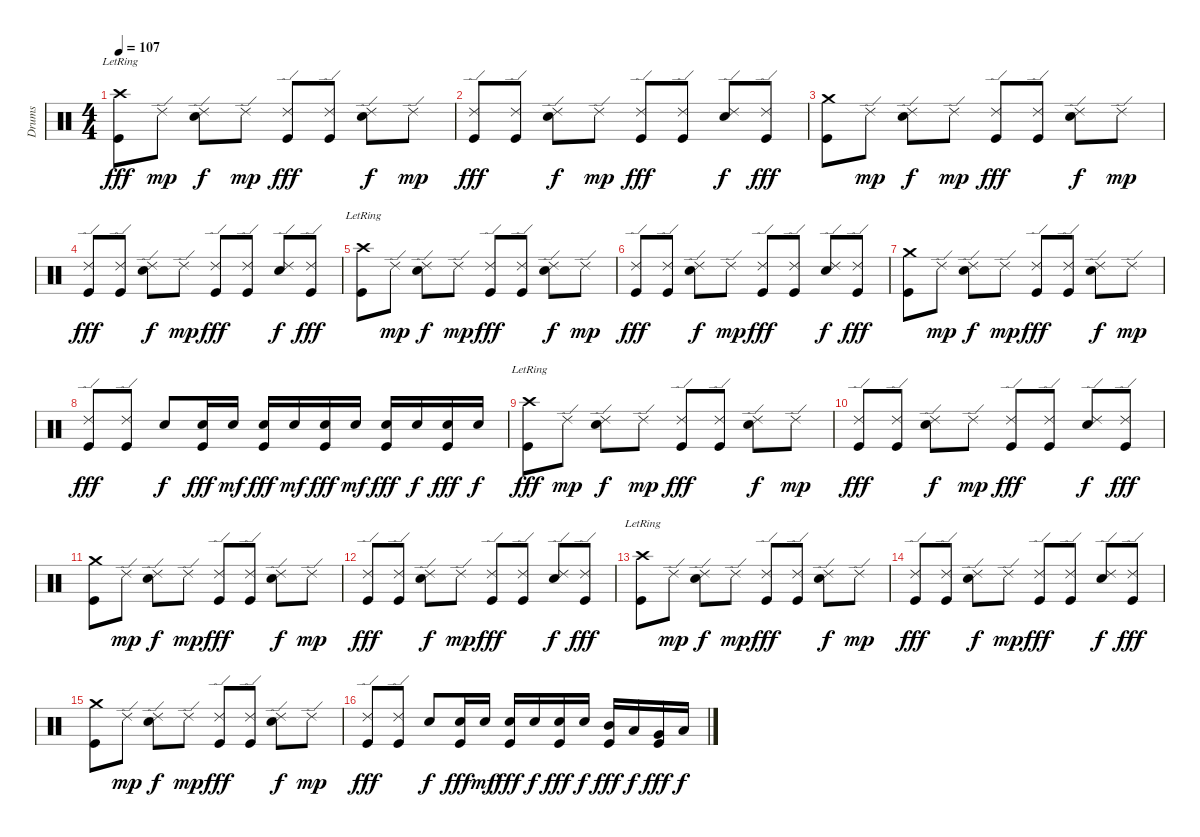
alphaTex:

\track ("Drums" "Drums") {instrument percussion}
\staff {score}
\articulation defaults
\ts (4 4)
\tempo 107
\clef neutral
\ks c
("Crash high (hit)"{lr} "Kick (hit)").8{dy fff volume 16} "Ride (edge) 2".8{dy mp} ("Ride (edge) 2" "Electric Snare (hit)").8{dy f} "Ride (edge) 2".8{dy mp} ("Ride (edge) 2" "Kick (hit)").8{dy fff} ("Ride (edge) 2" "Kick (hit)").8 ("Ride (edge) 2" "Electric Snare (hit)").8{dy f} "Ride (edge) 2".8{dy mp} |
("Ride (edge) 2" "Kick (hit)").8{dy fff} ("Ride (edge) 2" "Kick (hit)").8 ("Ride (edge) 2" "Electric Snare (hit)").8{dy f} "Ride (edge) 2".8{dy mp} ("Ride (edge) 2" "Kick (hit)").8{dy fff} ("Ride (edge) 2" "Kick (hit)").8 ("Ride (edge) 2" "Electric Snare (hit)").8{dy f} ("Ride (edge) 2" "Kick (hit)").8{dy fff} |
("Crash medium (hit)" "Kick (hit)").8 "Ride (edge) 2".8{dy mp} ("Ride (edge) 2" "Electric Snare (hit)").8{dy f} "Ride (edge) 2".8{dy mp} ("Ride (edge) 2" "Kick (hit)").8{dy fff} ("Ride (edge) 2" "Kick (hit)").8 ("Ride (edge) 2" "Electric Snare (hit)").8{dy f} "Ride (edge) 2".8{dy mp} |
("Ride (edge) 2" "Kick (hit)").8{dy fff} ("Ride (edge) 2" "Kick (hit)").8 ("Ride (edge) 2" "Electric Snare (hit)").8{dy f} "Ride (edge) 2".8{dy mp} ("Ride (edge) 2" "Kick (hit)").8{dy fff} ("Ride (edge) 2" "Kick (hit)").8 ("Ride (edge) 2" "Electric Snare (hit)").8{dy f} ("Ride (edge) 2" "Kick (hit)").8{dy fff} |
("Crash high (hit)"{lr} "Kick (hit)").8 "Ride (edge) 2".8{dy mp} ("Ride (edge) 2" "Electric Snare (hit)").8{dy f} "Ride (edge) 2".8{dy mp} ("Ride (edge) 2" "Kick (hit)").8{dy fff} ("Ride (edge) 2" "Kick (hit)").8 ("Ride (edge) 2" "Electric Snare (hit)").8{dy f} "Ride (edge) 2".8{dy mp} |
("Ride (edge) 2" "Kick (hit)").8{dy fff} ("Ride (edge) 2" "Kick (hit)").8 ("Ride (edge) 2" "Electric Snare (hit)").8{dy f} "Ride (edge) 2".8{dy mp} ("Ride (edge) 2" "Kick (hit)").8{dy fff} ("Ride (edge) 2" "Kick (hit)").8 ("Ride (edge) 2" "Electric Snare (hit)").8{dy f} ("Ride (edge) 2" "Kick (hit)").8{dy fff} |
("Crash medium (hit)" "Kick (hit)").8 "Ride (edge) 2".8{dy mp} ("Ride (edge) 2" "Electric Snare (hit)").8{dy f} "Ride (edge) 2".8{dy mp} ("Ride (edge) 2" "Kick (hit)").8{dy fff} ("Ride (edge) 2" "Kick (hit)").8 ("Ride (edge) 2" "Electric Snare (hit)").8{dy f} "Ride (edge) 2".8{dy mp} |
("Ride (edge) 2" "Kick (hit)").8{dy fff} ("Ride (edge) 2" "Kick (hit)").8 "Electric Snare (hit)".8{dy f} ("Electric Snare (hit)" "Kick (hit)").16{dy fff} "Electric Snare (hit)".16{dy mf} ("Electric Snare (hit)" "Kick (hit)").16{dy fff} "Electric Snare (hit)".16{dy mf} ("Electric Snare (hit)" "Kick (hit)").16{dy fff} "Electric Snare (hit)".16{dy mf} ("Electric Snare (hit)" "Kick (hit)").16{dy fff} "Electric Snare (hit)".16{dy f} ("Electric Snare (hit)" "Kick (hit)").16{dy fff} "Electric Snare (hit)".16{dy f} |
("Crash high (hit)"{lr} "Kick (hit)").8{dy fff} "Ride (edge) 2".8{dy mp} ("Ride (edge) 2" "Electric Snare (hit)").8{dy f} "Ride (edge) 2".8{dy mp} ("Ride (edge) 2" "Kick (hit)").8{dy fff} ("Ride (edge) 2" "Kick (hit)").8 ("Ride (edge) 2" "Electric Snare (hit)").8{dy f} "Ride (edge) 2".8{dy mp} |
("Ride (edge) 2" "Kick (hit)").8{dy fff} ("Ride (edge) 2" "Kick (hit)").8 ("Ride (edge) 2" "Electric Snare (hit)").8{dy f} "Ride (edge) 2".8{dy mp} ("Ride (edge) 2" "Kick (hit)").8{dy fff} ("Ride (edge) 2" "Kick (hit)").8 ("Ride (edge) 2" "Electric Snare (hit)").8{dy f} ("Ride (edge) 2" "Kick (hit)").8{dy fff} |
("Crash medium (hit)" "Kick (hit)").8 "Ride (edge) 2".8{dy mp} ("Ride (edge) 2" "Electric Snare (hit)").8{dy f} "Ride (edge) 2".8{dy mp} ("Ride (edge) 2" "Kick (hit)").8{dy fff} ("Ride (edge) 2" "Kick (hit)").8 ("Ride (edge) 2" "Electric Snare (hit)").8{dy f} "Ride (edge) 2".8{dy mp} |
("Ride (edge) 2" "Kick (hit)").8{dy fff} ("Ride (edge) 2" "Kick (hit)").8 ("Ride (edge) 2" "Electric Snare (hit)").8{dy f} "Ride (edge) 2".8{dy mp} ("Ride (edge) 2" "Kick (hit)").8{dy fff} ("Ride (edge) 2" "Kick (hit)").8 ("Ride (edge) 2" "Electric Snare (hit)").8{dy f} ("Ride (edge) 2" "Kick (hit)").8{dy fff} |
("Crash high (hit)"{lr} "Kick (hit)").8 "Ride (edge) 2".8{dy mp} ("Ride (edge) 2" "Electric Snare (hit)").8{dy f} "Ride (edge) 2".8{dy mp} ("Ride (edge) 2" "Kick (hit)").8{dy fff} ("Ride (edge) 2" "Kick (hit)").8 ("Ride (edge) 2" "Electric Snare (hit)").8{dy f} "Ride (edge) 2".8{dy mp} |
("Ride (edge) 2" "Kick (hit)").8{dy fff} ("Ride (edge) 2" "Kick (hit)").8 ("Ride (edge) 2" "Electric Snare (hit)").8{dy f} "Ride (edge) 2".8{dy mp} ("Ride (edge) 2" "Kick (hit)").8{dy fff} ("Ride (edge) 2" "Kick (hit)").8 ("Ride (edge) 2" "Electric Snare (hit)").8{dy f} ("Ride (edge) 2" "Kick (hit)").8{dy fff} |
("Crash medium (hit)" "Kick (hit)").8 "Ride (edge) 2".8{dy mp} ("Ride (edge) 2" "Electric Snare (hit)").8{dy f} "Ride (edge) 2".8{dy mp} ("Ride (edge) 2" "Kick (hit)").8{dy fff} ("Ride (edge) 2" "Kick (hit)").8 ("Ride (edge) 2" "Electric Snare (hit)").8{dy f} "Ride (edge) 2".8{dy mp} |
("Ride (edge) 2" "Kick (hit)").8{dy fff} ("Ride (edge) 2" "Kick (hit)").8 "Electric Snare (hit)".8{dy f} ("Electric Snare (hit)" "Kick (hit)").16{dy fff} "Electric Snare (hit)".16{dy mf} ("Electric Snare (hit)" "Kick (hit)").16{dy fff} "Electric Snare (hit)".16{dy f} ("Electric Snare (hit)" "Kick (hit)").16{dy fff} "Electric Snare (hit)".16{dy f} ("Mid Tom (hit)" "Kick (hit)").16{dy fff} "Low Tom (hit)".16{dy f} ("Very Low Tom (hit)" "Kick (hit)").16{dy fff} "Low Floor Tom (hit)".16{dy f}
